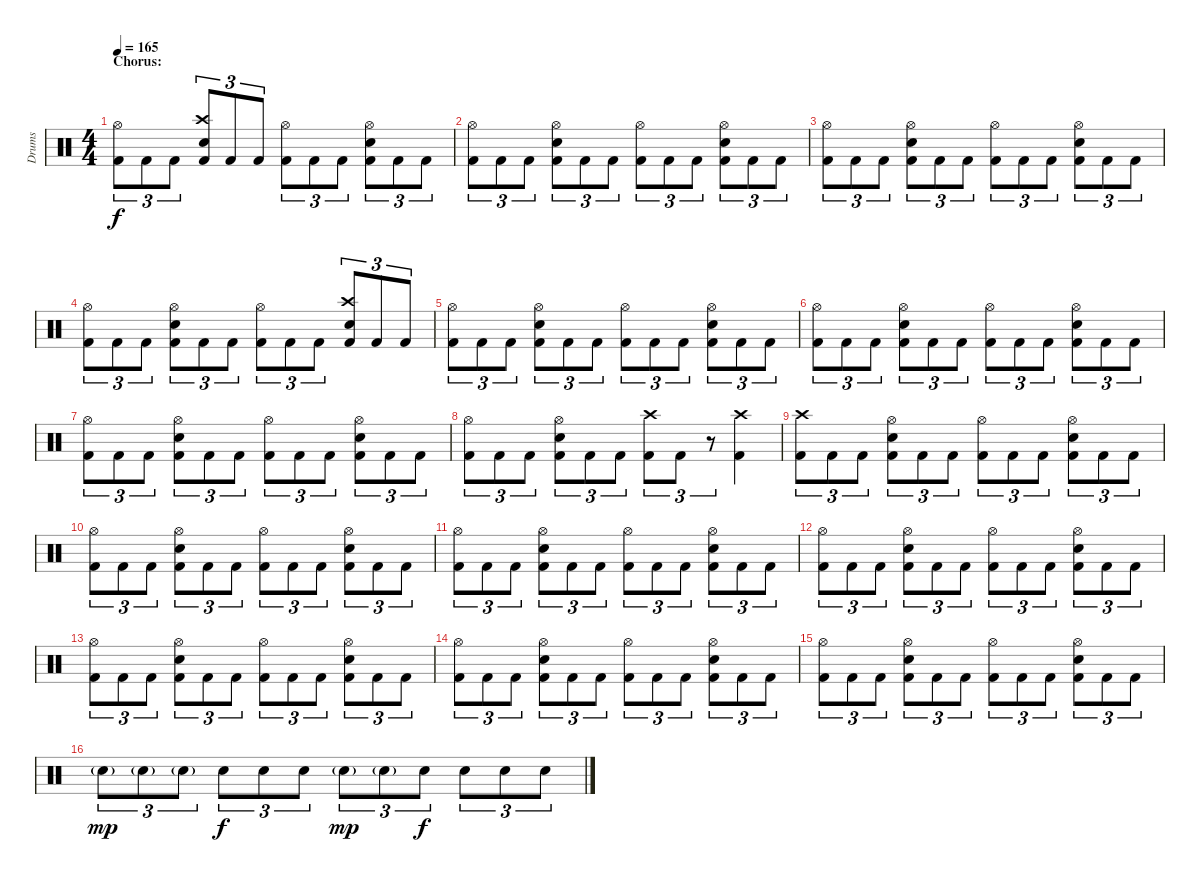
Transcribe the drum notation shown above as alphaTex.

\track ("Drums" "Drums") {instrument percussion}
\staff {score}
\articulation defaults
\ts (4 4)
\section ("" "Chorus:")
\tempo 165
\clef neutral
\ks c
("Hi-Hat (open)" "Kick (hit) 2").8{tu (3 2) dy f} "Kick (hit) 2".8{tu (3 2)} "Kick (hit) 2".8{tu (3 2)} ("Crash high (hit)" "Electric Snare (hit)" "Kick (hit) 2").8{tu (3 2)} "Kick (hit) 2".8{tu (3 2)} "Kick (hit) 2".8{tu (3 2)} ("Hi-Hat (open)" "Kick (hit) 2").8{tu (3 2)} "Kick (hit) 2".8{tu (3 2)} "Kick (hit) 2".8{tu (3 2)} ("Hi-Hat (open)" "Electric Snare (hit)" "Kick (hit) 2").8{tu (3 2)} "Kick (hit) 2".8{tu (3 2)} "Kick (hit) 2".8{tu (3 2)} |
("Hi-Hat (open)" "Kick (hit) 2").8{tu (3 2)} "Kick (hit) 2".8{tu (3 2)} "Kick (hit) 2".8{tu (3 2)} ("Hi-Hat (open)" "Electric Snare (hit)" "Kick (hit) 2").8{tu (3 2)} "Kick (hit) 2".8{tu (3 2)} "Kick (hit) 2".8{tu (3 2)} ("Hi-Hat (open)" "Kick (hit) 2").8{tu (3 2)} "Kick (hit) 2".8{tu (3 2)} "Kick (hit) 2".8{tu (3 2)} ("Hi-Hat (open)" "Electric Snare (hit)" "Kick (hit) 2").8{tu (3 2)} "Kick (hit) 2".8{tu (3 2)} "Kick (hit) 2".8{tu (3 2)} |
("Hi-Hat (open)" "Kick (hit) 2").8{tu (3 2)} "Kick (hit) 2".8{tu (3 2)} "Kick (hit) 2".8{tu (3 2)} ("Hi-Hat (open)" "Electric Snare (hit)" "Kick (hit) 2").8{tu (3 2)} "Kick (hit) 2".8{tu (3 2)} "Kick (hit) 2".8{tu (3 2)} ("Hi-Hat (open)" "Kick (hit) 2").8{tu (3 2)} "Kick (hit) 2".8{tu (3 2)} "Kick (hit) 2".8{tu (3 2)} ("Hi-Hat (open)" "Electric Snare (hit)" "Kick (hit) 2").8{tu (3 2)} "Kick (hit) 2".8{tu (3 2)} "Kick (hit) 2".8{tu (3 2)} |
("Hi-Hat (open)" "Kick (hit) 2").8{tu (3 2)} "Kick (hit) 2".8{tu (3 2)} "Kick (hit) 2".8{tu (3 2)} ("Hi-Hat (open)" "Electric Snare (hit)" "Kick (hit) 2").8{tu (3 2)} "Kick (hit) 2".8{tu (3 2)} "Kick (hit) 2".8{tu (3 2)} ("Hi-Hat (open)" "Kick (hit) 2").8{tu (3 2)} "Kick (hit) 2".8{tu (3 2)} "Kick (hit) 2".8{tu (3 2)} ("Crash high (hit)" "Electric Snare (hit)" "Kick (hit) 2").8{tu (3 2)} "Kick (hit) 2".8{tu (3 2)} "Kick (hit) 2".8{tu (3 2)} |
("Hi-Hat (open)" "Kick (hit) 2").8{tu (3 2)} "Kick (hit) 2".8{tu (3 2)} "Kick (hit) 2".8{tu (3 2)} ("Hi-Hat (open)" "Electric Snare (hit)" "Kick (hit) 2").8{tu (3 2)} "Kick (hit) 2".8{tu (3 2)} "Kick (hit) 2".8{tu (3 2)} ("Hi-Hat (open)" "Kick (hit) 2").8{tu (3 2)} "Kick (hit) 2".8{tu (3 2)} "Kick (hit) 2".8{tu (3 2)} ("Hi-Hat (open)" "Electric Snare (hit)" "Kick (hit) 2").8{tu (3 2)} "Kick (hit) 2".8{tu (3 2)} "Kick (hit) 2".8{tu (3 2)} |
("Hi-Hat (open)" "Kick (hit) 2").8{tu (3 2)} "Kick (hit) 2".8{tu (3 2)} "Kick (hit) 2".8{tu (3 2)} ("Hi-Hat (open)" "Electric Snare (hit)" "Kick (hit) 2").8{tu (3 2)} "Kick (hit) 2".8{tu (3 2)} "Kick (hit) 2".8{tu (3 2)} ("Hi-Hat (open)" "Kick (hit) 2").8{tu (3 2)} "Kick (hit) 2".8{tu (3 2)} "Kick (hit) 2".8{tu (3 2)} ("Hi-Hat (open)" "Electric Snare (hit)" "Kick (hit) 2").8{tu (3 2)} "Kick (hit) 2".8{tu (3 2)} "Kick (hit) 2".8{tu (3 2)} |
("Hi-Hat (open)" "Kick (hit) 2").8{tu (3 2)} "Kick (hit) 2".8{tu (3 2)} "Kick (hit) 2".8{tu (3 2)} ("Hi-Hat (open)" "Electric Snare (hit)" "Kick (hit) 2").8{tu (3 2)} "Kick (hit) 2".8{tu (3 2)} "Kick (hit) 2".8{tu (3 2)} ("Hi-Hat (open)" "Kick (hit) 2").8{tu (3 2)} "Kick (hit) 2".8{tu (3 2)} "Kick (hit) 2".8{tu (3 2)} ("Hi-Hat (open)" "Electric Snare (hit)" "Kick (hit) 2").8{tu (3 2)} "Kick (hit) 2".8{tu (3 2)} "Kick (hit) 2".8{tu (3 2)} |
("Hi-Hat (open)" "Kick (hit) 2").8{tu (3 2)} "Kick (hit) 2".8{tu (3 2)} "Kick (hit) 2".8{tu (3 2)} ("Hi-Hat (open)" "Electric Snare (hit)" "Kick (hit) 2").8{tu (3 2)} "Kick (hit) 2".8{tu (3 2)} "Kick (hit) 2".8{tu (3 2)} ("Crash high (hit)" "Kick (hit) 2").8{tu (3 2)} "Kick (hit) 2".8{tu (3 2)} r.8{tu (3 2)} ("Crash high (hit)" "Kick (hit) 2").4 |
("Crash high (hit)" "Kick (hit) 2").8{tu (3 2)} "Kick (hit) 2".8{tu (3 2)} "Kick (hit) 2".8{tu (3 2)} ("Hi-Hat (open)" "Electric Snare (hit)" "Kick (hit) 2").8{tu (3 2)} "Kick (hit) 2".8{tu (3 2)} "Kick (hit) 2".8{tu (3 2)} ("Hi-Hat (open)" "Kick (hit) 2").8{tu (3 2)} "Kick (hit) 2".8{tu (3 2)} "Kick (hit) 2".8{tu (3 2)} ("Hi-Hat (open)" "Electric Snare (hit)" "Kick (hit) 2").8{tu (3 2)} "Kick (hit) 2".8{tu (3 2)} "Kick (hit) 2".8{tu (3 2)} |
("Hi-Hat (open)" "Kick (hit) 2").8{tu (3 2)} "Kick (hit) 2".8{tu (3 2)} "Kick (hit) 2".8{tu (3 2)} ("Hi-Hat (open)" "Electric Snare (hit)" "Kick (hit) 2").8{tu (3 2)} "Kick (hit) 2".8{tu (3 2)} "Kick (hit) 2".8{tu (3 2)} ("Hi-Hat (open)" "Kick (hit) 2").8{tu (3 2)} "Kick (hit) 2".8{tu (3 2)} "Kick (hit) 2".8{tu (3 2)} ("Hi-Hat (open)" "Electric Snare (hit)" "Kick (hit) 2").8{tu (3 2)} "Kick (hit) 2".8{tu (3 2)} "Kick (hit) 2".8{tu (3 2)} |
("Hi-Hat (open)" "Kick (hit) 2").8{tu (3 2)} "Kick (hit) 2".8{tu (3 2)} "Kick (hit) 2".8{tu (3 2)} ("Hi-Hat (open)" "Electric Snare (hit)" "Kick (hit) 2").8{tu (3 2)} "Kick (hit) 2".8{tu (3 2)} "Kick (hit) 2".8{tu (3 2)} ("Hi-Hat (open)" "Kick (hit) 2").8{tu (3 2)} "Kick (hit) 2".8{tu (3 2)} "Kick (hit) 2".8{tu (3 2)} ("Hi-Hat (open)" "Electric Snare (hit)" "Kick (hit) 2").8{tu (3 2)} "Kick (hit) 2".8{tu (3 2)} "Kick (hit) 2".8{tu (3 2)} |
("Hi-Hat (open)" "Kick (hit) 2").8{tu (3 2)} "Kick (hit) 2".8{tu (3 2)} "Kick (hit) 2".8{tu (3 2)} ("Hi-Hat (open)" "Electric Snare (hit)" "Kick (hit) 2").8{tu (3 2)} "Kick (hit) 2".8{tu (3 2)} "Kick (hit) 2".8{tu (3 2)} ("Hi-Hat (open)" "Kick (hit) 2").8{tu (3 2)} "Kick (hit) 2".8{tu (3 2)} "Kick (hit) 2".8{tu (3 2)} ("Hi-Hat (open)" "Electric Snare (hit)" "Kick (hit) 2").8{tu (3 2)} "Kick (hit) 2".8{tu (3 2)} "Kick (hit) 2".8{tu (3 2)} |
("Hi-Hat (open)" "Kick (hit) 2").8{tu (3 2)} "Kick (hit) 2".8{tu (3 2)} "Kick (hit) 2".8{tu (3 2)} ("Hi-Hat (open)" "Electric Snare (hit)" "Kick (hit) 2").8{tu (3 2)} "Kick (hit) 2".8{tu (3 2)} "Kick (hit) 2".8{tu (3 2)} ("Hi-Hat (open)" "Kick (hit) 2").8{tu (3 2)} "Kick (hit) 2".8{tu (3 2)} "Kick (hit) 2".8{tu (3 2)} ("Hi-Hat (open)" "Electric Snare (hit)" "Kick (hit) 2").8{tu (3 2)} "Kick (hit) 2".8{tu (3 2)} "Kick (hit) 2".8{tu (3 2)} |
("Hi-Hat (open)" "Kick (hit) 2").8{tu (3 2)} "Kick (hit) 2".8{tu (3 2)} "Kick (hit) 2".8{tu (3 2)} ("Hi-Hat (open)" "Electric Snare (hit)" "Kick (hit) 2").8{tu (3 2)} "Kick (hit) 2".8{tu (3 2)} "Kick (hit) 2".8{tu (3 2)} ("Hi-Hat (open)" "Kick (hit) 2").8{tu (3 2)} "Kick (hit) 2".8{tu (3 2)} "Kick (hit) 2".8{tu (3 2)} ("Hi-Hat (open)" "Electric Snare (hit)" "Kick (hit) 2").8{tu (3 2)} "Kick (hit) 2".8{tu (3 2)} "Kick (hit) 2".8{tu (3 2)} |
("Hi-Hat (open)" "Kick (hit) 2").8{tu (3 2)} "Kick (hit) 2".8{tu (3 2)} "Kick (hit) 2".8{tu (3 2)} ("Hi-Hat (open)" "Electric Snare (hit)" "Kick (hit) 2").8{tu (3 2)} "Kick (hit) 2".8{tu (3 2)} "Kick (hit) 2".8{tu (3 2)} ("Hi-Hat (open)" "Kick (hit) 2").8{tu (3 2)} "Kick (hit) 2".8{tu (3 2)} "Kick (hit) 2".8{tu (3 2)} ("Hi-Hat (open)" "Electric Snare (hit)" "Kick (hit) 2").8{tu (3 2)} "Kick (hit) 2".8{tu (3 2)} "Kick (hit) 2".8{tu (3 2)} |
"Electric Snare (hit)"{g}.8{tu (3 2) dy mp} "Electric Snare (hit)"{g}.8{tu (3 2)} "Electric Snare (hit)"{g}.8{tu (3 2)} "Electric Snare (hit)".8{tu (3 2) dy f} "Electric Snare (hit)".8{tu (3 2)} "Electric Snare (hit)".8{tu (3 2)} "Electric Snare (hit)"{g}.8{tu (3 2) dy mp} "Electric Snare (hit)"{g}.8{tu (3 2)} "Electric Snare (hit)".8{tu (3 2) dy f} "Electric Snare (hit)".8{tu (3 2)} "Electric Snare (hit)".8{tu (3 2)} "Electric Snare (hit)".8{tu (3 2)}
